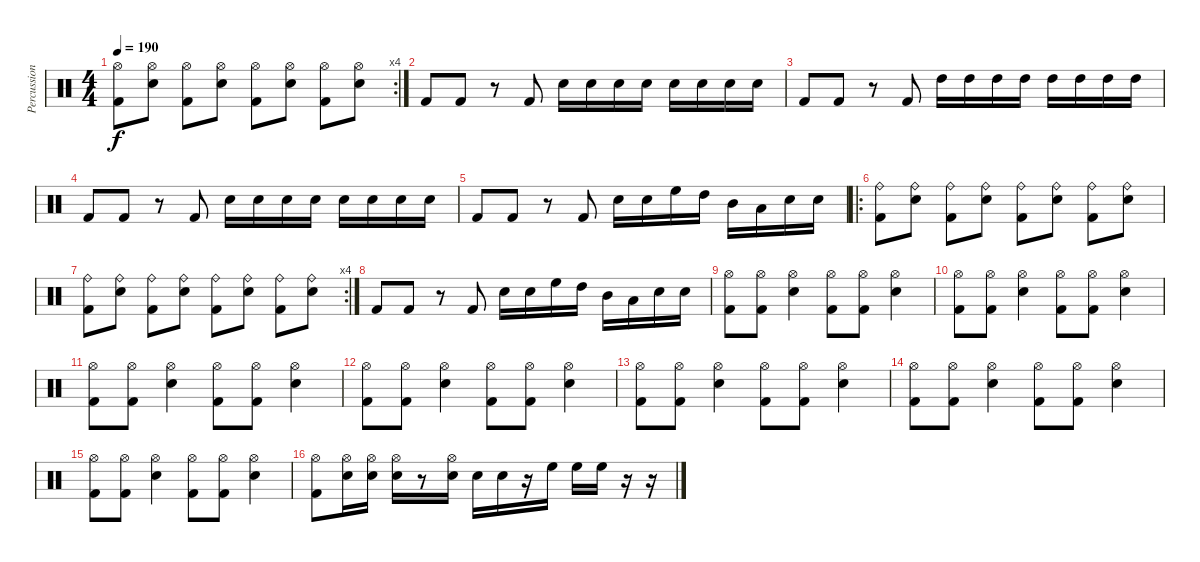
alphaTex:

\track ("Percussion" "Percussion") {instrument percussion}
\staff {score}
\articulation defaults
\rc 4
\ts (4 4)
\tempo 190
\clef neutral
\ks c
("Hi-Hat (open)" "Kick (hit) 2").8{dy f} ("Hi-Hat (open)" "Snare (hit) 2").8 ("Hi-Hat (open)" "Kick (hit) 2").8 ("Hi-Hat (open)" "Snare (hit) 2").8 ("Hi-Hat (open)" "Kick (hit) 2").8 ("Hi-Hat (open)" "Snare (hit) 2").8 ("Hi-Hat (open)" "Kick (hit) 2").8 ("Hi-Hat (open)" "Snare (hit) 2").8 |
"Kick (hit) 2".8 "Kick (hit) 2".8 r.8 "Kick (hit) 2".8 "Snare (hit) 2".16 "Snare (hit) 2".16 "Snare (hit) 2".16 "Snare (hit) 2".16 "Snare (hit) 2".16 "Snare (hit) 2".16 "Snare (hit) 2".16 "Snare (hit) 2".16 |
"Kick (hit) 2".8 "Kick (hit) 2".8 r.8 "Kick (hit) 2".8 "High Tom (hit)".16 "High Tom (hit)".16 "High Tom (hit)".16 "High Tom (hit)".16 "High Tom (hit)".16 "High Tom (hit)".16 "High Tom (hit)".16 "High Tom (hit)".16 |
"Kick (hit) 2".8 "Kick (hit) 2".8 r.8 "Kick (hit) 2".8 "Snare (hit) 2".16 "Snare (hit) 2".16 "Snare (hit) 2".16 "Snare (hit) 2".16 "Snare (hit) 2".16 "Snare (hit) 2".16 "Snare (hit) 2".16 "Snare (hit) 2".16 |
"Kick (hit) 2".8 "Kick (hit) 2".8 r.8 "Kick (hit) 2".8 "Snare (hit) 2".16 "Snare (hit) 2".16 "High Floor Tom (hit)".16 "High Tom (hit)".16 "Mid Tom (hit)".16 "Low Tom (hit)".16 "Snare (hit) 2".16 "Snare (hit) 2".16 |
\ro
("Ride (bell)" "Kick (hit) 2").8 ("Ride (bell)" "Snare (hit) 2").8 ("Ride (bell)" "Kick (hit) 2").8 ("Ride (bell)" "Snare (hit) 2").8 ("Ride (bell)" "Kick (hit) 2").8 ("Ride (bell)" "Snare (hit) 2").8 ("Ride (bell)" "Kick (hit) 2").8 ("Ride (bell)" "Snare (hit) 2").8 |
\rc 4
("Ride (bell)" "Kick (hit) 2").8 ("Ride (bell)" "Snare (hit) 2").8 ("Ride (bell)" "Kick (hit) 2").8 ("Ride (bell)" "Snare (hit) 2").8 ("Ride (bell)" "Kick (hit) 2").8 ("Ride (bell)" "Snare (hit) 2").8 ("Ride (bell)" "Kick (hit) 2").8 ("Ride (bell)" "Snare (hit) 2").8 |
"Kick (hit) 2".8 "Kick (hit) 2".8 r.8 "Kick (hit) 2".8 "Snare (hit) 2".16 "Snare (hit) 2".16 "High Floor Tom (hit)".16 "High Tom (hit)".16 "Mid Tom (hit)".16 "Low Tom (hit)".16 "Snare (hit) 2".16 "Snare (hit) 2".16 |
("Hi-Hat (open)" "Kick (hit) 2").8 ("Hi-Hat (open)" "Kick (hit) 2").8 ("Hi-Hat (open)" "Snare (hit) 2").4 ("Hi-Hat (open)" "Kick (hit) 2").8 ("Hi-Hat (open)" "Kick (hit) 2").8 ("Hi-Hat (open)" "Snare (hit) 2").4 |
("Hi-Hat (open)" "Kick (hit) 2").8 ("Hi-Hat (open)" "Kick (hit) 2").8 ("Hi-Hat (open)" "Snare (hit) 2").4 ("Hi-Hat (open)" "Kick (hit) 2").8 ("Hi-Hat (open)" "Kick (hit) 2").8 ("Hi-Hat (open)" "Snare (hit) 2").4 |
("Hi-Hat (open)" "Kick (hit) 2").8 ("Hi-Hat (open)" "Kick (hit) 2").8 ("Hi-Hat (open)" "Snare (hit) 2").4 ("Hi-Hat (open)" "Kick (hit) 2").8 ("Hi-Hat (open)" "Kick (hit) 2").8 ("Hi-Hat (open)" "Snare (hit) 2").4 |
("Hi-Hat (open)" "Kick (hit) 2").8 ("Hi-Hat (open)" "Kick (hit) 2").8 ("Hi-Hat (open)" "Snare (hit) 2").4 ("Hi-Hat (open)" "Kick (hit) 2").8 ("Hi-Hat (open)" "Kick (hit) 2").8 ("Hi-Hat (open)" "Snare (hit) 2").4 |
("Hi-Hat (open)" "Kick (hit) 2").8 ("Hi-Hat (open)" "Kick (hit) 2").8 ("Hi-Hat (open)" "Snare (hit) 2").4 ("Hi-Hat (open)" "Kick (hit) 2").8 ("Hi-Hat (open)" "Kick (hit) 2").8 ("Hi-Hat (open)" "Snare (hit) 2").4 |
("Hi-Hat (open)" "Kick (hit) 2").8 ("Hi-Hat (open)" "Kick (hit) 2").8 ("Hi-Hat (open)" "Snare (hit) 2").4 ("Hi-Hat (open)" "Kick (hit) 2").8 ("Hi-Hat (open)" "Kick (hit) 2").8 ("Hi-Hat (open)" "Snare (hit) 2").4 |
("Hi-Hat (open)" "Kick (hit) 2").8 ("Hi-Hat (open)" "Kick (hit) 2").8 ("Hi-Hat (open)" "Snare (hit) 2").4 ("Hi-Hat (open)" "Kick (hit) 2").8 ("Hi-Hat (open)" "Kick (hit) 2").8 ("Hi-Hat (open)" "Snare (hit) 2").4 |
("Hi-Hat (open)" "Kick (hit) 2").8 ("Hi-Hat (open)" "Snare (hit) 2").16 ("Hi-Hat (open)" "Snare (hit) 2").16 ("Hi-Hat (open)" "Snare (hit) 2").16 r.8 ("Hi-Hat (open)" "Snare (hit) 2").16 "Snare (hit) 2".16 "Snare (hit) 2".16 r.16 "High Floor Tom (hit)".16 "High Floor Tom (hit)".16 "High Floor Tom (hit)".16 r.16 r.16
